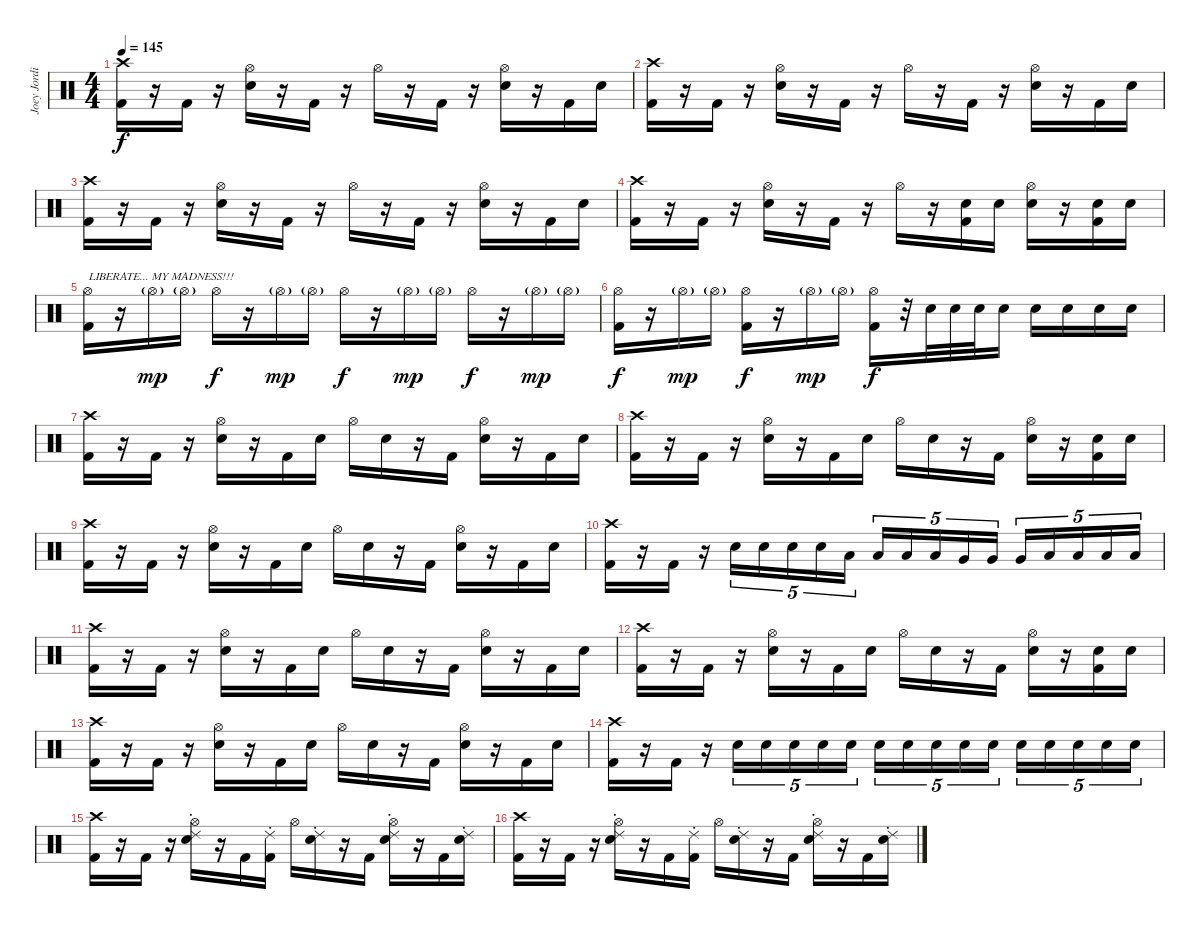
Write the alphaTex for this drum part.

\track ("Joey Jordison" "Joey Jordi") {instrument percussion}
\staff {score}
\articulation defaults
\ts (4 4)
\tempo 145
\clef neutral
\ks c
("Crash high (hit)" "Kick (hit) 2").16{dy f} r.16 "Kick (hit) 2".16 r.16 ("Hi-Hat (open)" "Electric Snare (hit)").16 r.16 "Kick (hit) 2".16 r.16 "Hi-Hat (open)".16 r.16 "Kick (hit) 2".16 r.16 ("Hi-Hat (open)" "Electric Snare (hit)").16 r.16 "Kick (hit) 2".16 "Electric Snare (hit)".16 |
("Crash high (hit)" "Kick (hit) 2").16 r.16 "Kick (hit) 2".16 r.16 ("Hi-Hat (open)" "Electric Snare (hit)").16 r.16 "Kick (hit) 2".16 r.16 "Hi-Hat (open)".16 r.16 "Kick (hit) 2".16 r.16 ("Hi-Hat (open)" "Electric Snare (hit)").16 r.16 "Kick (hit) 2".16 "Electric Snare (hit)".16 |
("Crash high (hit)" "Kick (hit) 2").16 r.16 "Kick (hit) 2".16 r.16 ("Hi-Hat (open)" "Electric Snare (hit)").16 r.16 "Kick (hit) 2".16 r.16 "Hi-Hat (open)".16 r.16 "Kick (hit) 2".16 r.16 ("Hi-Hat (open)" "Electric Snare (hit)").16 r.16 "Kick (hit) 2".16 "Electric Snare (hit)".16 |
("Crash high (hit)" "Kick (hit) 2").16 r.16 "Kick (hit) 2".16 r.16 ("Hi-Hat (open)" "Electric Snare (hit)").16 r.16 "Kick (hit) 2".16 r.16 "Hi-Hat (open)".16 r.16 ("Electric Snare (hit)" "Kick (hit) 2").16 "Electric Snare (hit)".16 ("Hi-Hat (open)" "Electric Snare (hit)").16 r.16 ("Electric Snare (hit)" "Kick (hit) 2").16 "Electric Snare (hit)".16 |
("Hi-Hat (open)" "Kick (hit) 2").16{txt "LIBERATE... MY MADNESS!!!"} r.16 "Hi-Hat (open)"{g}.16{dy mp} "Hi-Hat (open)"{g}.16 "Hi-Hat (open)".16{dy f} r.16 "Hi-Hat (open)"{g}.16{dy mp} "Hi-Hat (open)"{g}.16 "Hi-Hat (open)".16{dy f} r.16 "Hi-Hat (open)"{g}.16{dy mp} "Hi-Hat (open)"{g}.16 "Hi-Hat (open)".16{dy f} r.16 "Hi-Hat (open)"{g}.16{dy mp} "Hi-Hat (open)"{g}.16 |
("Hi-Hat (open)" "Kick (hit) 2").16{dy f} r.16 "Hi-Hat (open)"{g}.16{dy mp} "Hi-Hat (open)"{g}.16 ("Hi-Hat (open)" "Kick (hit) 2").16{dy f} r.16 "Hi-Hat (open)"{g}.16{dy mp} "Hi-Hat (open)"{g}.16 ("Hi-Hat (open)" "Kick (hit) 2").16{dy f} r.32 "Electric Snare (hit)".32 "Electric Snare (hit)".32 "Electric Snare (hit)".32 "Electric Snare (hit)".16 "Electric Snare (hit)".16 "Electric Snare (hit)".16 "Electric Snare (hit)".16 "Electric Snare (hit)".16 |
("Crash high (hit)" "Kick (hit) 2").16 r.16 "Kick (hit) 2".16 r.16 ("Hi-Hat (open)" "Electric Snare (hit)").16 r.16 "Kick (hit) 2".16 "Electric Snare (hit)".16 "Hi-Hat (open)".16 "Electric Snare (hit)".16 r.16 "Kick (hit) 2".16 ("Hi-Hat (open)" "Electric Snare (hit)").16 r.16 "Kick (hit) 2".16 "Electric Snare (hit)".16 |
("Crash high (hit)" "Kick (hit) 2").16 r.16 "Kick (hit) 2".16 r.16 ("Hi-Hat (open)" "Electric Snare (hit)").16 r.16 "Kick (hit) 2".16 "Electric Snare (hit)".16 "Hi-Hat (open)".16 "Electric Snare (hit)".16 r.16 "Kick (hit) 2".16 ("Hi-Hat (open)" "Electric Snare (hit)").16 r.16 ("Electric Snare (hit)" "Kick (hit) 2").16 "Electric Snare (hit)".16 |
("Crash high (hit)" "Kick (hit) 2").16 r.16 "Kick (hit) 2".16 r.16 ("Hi-Hat (open)" "Electric Snare (hit)").16 r.16 "Kick (hit) 2".16 "Electric Snare (hit)".16 "Hi-Hat (open)".16 "Electric Snare (hit)".16 r.16 "Kick (hit) 2".16 ("Hi-Hat (open)" "Electric Snare (hit)").16 r.16 "Kick (hit) 2".16 "Electric Snare (hit)".16 |
("Crash high (hit)" "Kick (hit) 2").16 r.16 "Kick (hit) 2".16 r.16 "Electric Snare (hit)".16{tu (5 4)} "Electric Snare (hit)".16{tu (5 4)} "Electric Snare (hit)".16{tu (5 4)} "Electric Snare (hit)".16{tu (5 4)} "Low Tom (hit)".16{tu (5 4)} "Low Tom (hit)".16{tu (5 4)} "Low Tom (hit)".16{tu (5 4)} "Low Tom (hit)".16{tu (5 4)} "Very Low Tom (hit)".16{tu (5 4)} "Very Low Tom (hit)".16{tu (5 4)} "Very Low Tom (hit)".16{tu (5 4)} "Low Floor Tom (hit)".16{tu (5 4)} "Low Floor Tom (hit)".16{tu (5 4)} "Low Floor Tom (hit)".16{tu (5 4)} "Low Floor Tom (hit)".16{tu (5 4)} |
("Crash high (hit)" "Kick (hit) 2").16 r.16 "Kick (hit) 2".16 r.16 ("Hi-Hat (open)" "Electric Snare (hit)").16 r.16 "Kick (hit) 2".16 "Electric Snare (hit)".16 "Hi-Hat (open)".16 "Electric Snare (hit)".16 r.16 "Kick (hit) 2".16 ("Hi-Hat (open)" "Electric Snare (hit)").16 r.16 "Kick (hit) 2".16 "Electric Snare (hit)".16 |
("Crash high (hit)" "Kick (hit) 2").16 r.16 "Kick (hit) 2".16 r.16 ("Hi-Hat (open)" "Electric Snare (hit)").16 r.16 "Kick (hit) 2".16 "Electric Snare (hit)".16 "Hi-Hat (open)".16 "Electric Snare (hit)".16 r.16 "Kick (hit) 2".16 ("Hi-Hat (open)" "Electric Snare (hit)").16 r.16 ("Electric Snare (hit)" "Kick (hit) 2").16 "Electric Snare (hit)".16 |
("Crash high (hit)" "Kick (hit) 2").16 r.16 "Kick (hit) 2".16 r.16 ("Hi-Hat (open)" "Electric Snare (hit)").16 r.16 "Kick (hit) 2".16 "Electric Snare (hit)".16 "Hi-Hat (open)".16 "Electric Snare (hit)".16 r.16 "Kick (hit) 2".16 ("Hi-Hat (open)" "Electric Snare (hit)").16 r.16 "Kick (hit) 2".16 "Electric Snare (hit)".16 |
("Crash high (hit)" "Kick (hit) 2").16 r.16 "Kick (hit) 2".16 r.16 "Electric Snare (hit)".16{tu (5 4)} "Electric Snare (hit)".16{tu (5 4)} "Electric Snare (hit)".16{tu (5 4)} "Electric Snare (hit)".16{tu (5 4)} "Electric Snare (hit)".16{tu (5 4)} "Electric Snare (hit)".16{tu (5 4)} "Electric Snare (hit)".16{tu (5 4)} "Electric Snare (hit)".16{tu (5 4)} "Electric Snare (hit)".16{tu (5 4)} "Electric Snare (hit)".16{tu (5 4)} "Electric Snare (hit)".16{tu (5 4)} "Electric Snare (hit)".16{tu (5 4)} "Electric Snare (hit)".16{tu (5 4)} "Electric Snare (hit)".16{tu (5 4)} "Electric Snare (hit)".16{tu (5 4)} |
("Crash high (hit)" "Kick (hit) 2").16 r.16 "Kick (hit) 2".16 r.16 ("Hi-Hat (open)" "Ride (choke) 2" "Electric Snare (hit)").16 r.16 "Kick (hit) 2".16 ("Ride (choke) 2" "Kick (hit) 2").16 "Hi-Hat (open)".16 ("Ride (choke) 2" "Electric Snare (hit)").16 r.16 "Kick (hit) 2".16 ("Hi-Hat (open)" "Ride (choke) 2" "Electric Snare (hit)").16 r.16 "Kick (hit) 2".16 ("Ride (choke) 2" "Electric Snare (hit)").16 |
("Crash high (hit)" "Kick (hit) 2").16 r.16 "Kick (hit) 2".16 r.16 ("Hi-Hat (open)" "Ride (choke) 2" "Electric Snare (hit)").16 r.16 "Kick (hit) 2".16 ("Ride (choke) 2" "Kick (hit) 2").16 "Hi-Hat (open)".16 ("Ride (choke) 2" "Electric Snare (hit)").16 r.16 "Kick (hit) 2".16 ("Hi-Hat (open)" "Ride (choke) 2" "Electric Snare (hit)").16 r.16 "Kick (hit) 2".16 ("Ride (choke) 2" "Electric Snare (hit)").16
